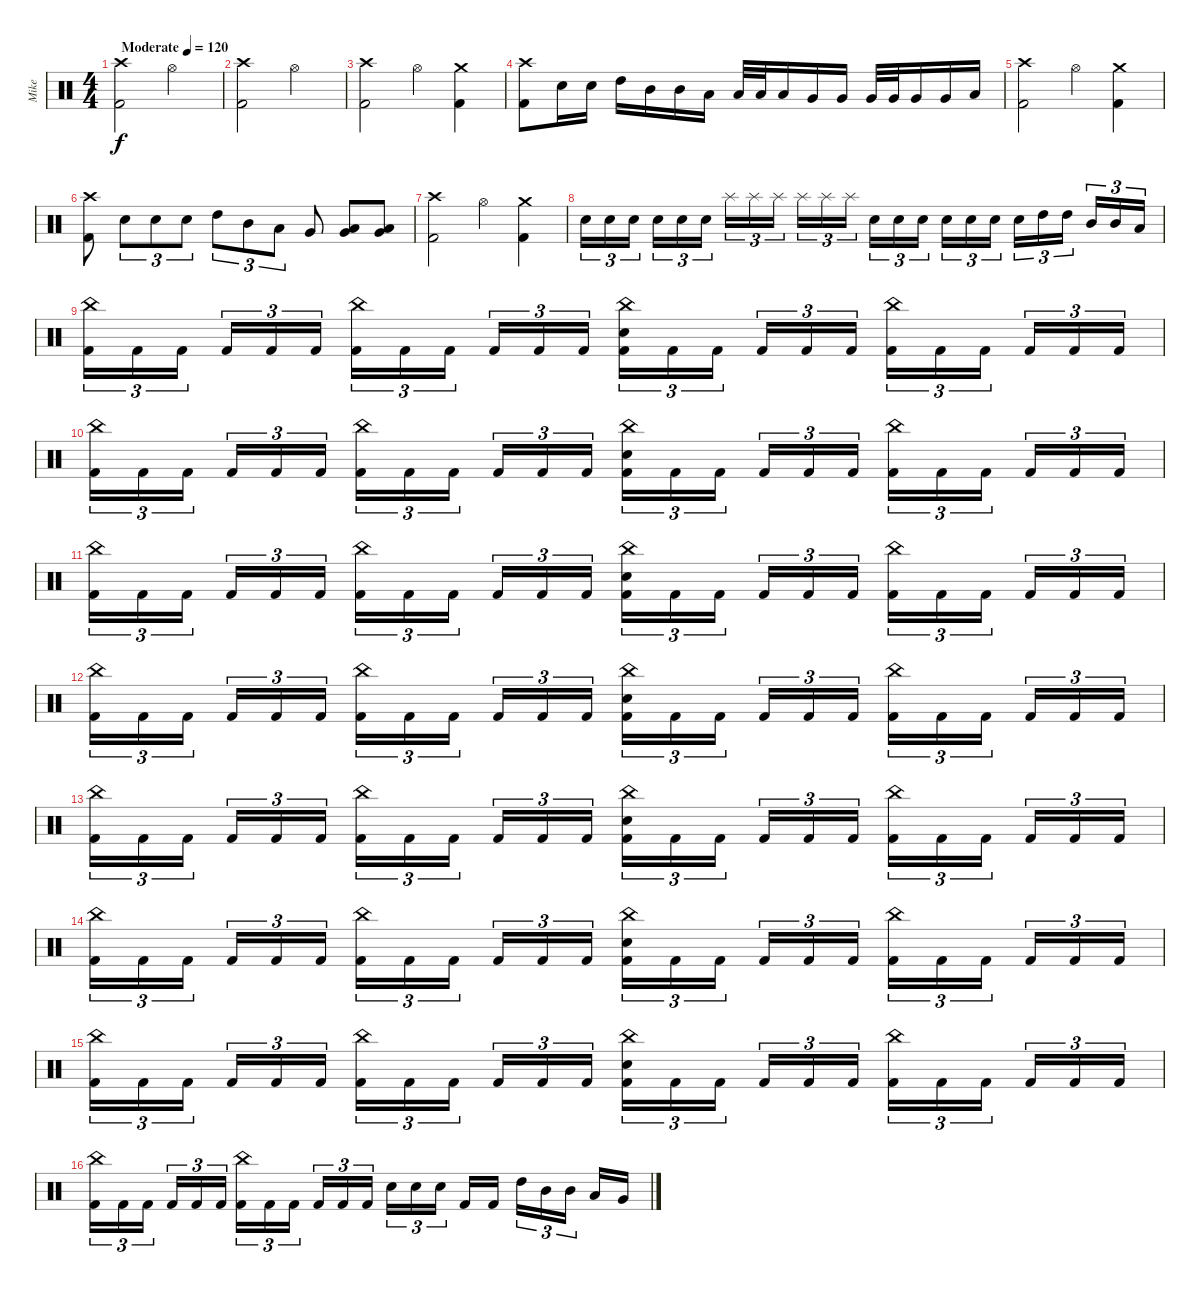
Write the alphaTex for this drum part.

\track ("Mike" "Mike") {instrument percussion}
\staff {score}
\articulation defaults
\ts (4 4)
\tempo (120 "Moderate")
\clef neutral
\ks c
("Kick (hit) 2" "Crash high (hit)").2{dy f} "Hi-Hat (open)".2 |
("Kick (hit) 2" "Crash high (hit)").2 "Hi-Hat (open)".2 |
("Kick (hit) 2" "Crash high (hit)").2 "Hi-Hat (open)".4 ("Kick (hit) 2" "Crash medium (hit)").4 |
("Kick (hit) 2" "Crash high (hit)").8 "Electric Snare (hit)".16 "Electric Snare (hit)".16 "High Tom (hit)".16 "Mid Tom (hit)".16 "Mid Tom (hit)".16 "Low Tom (hit)".16 "Low Tom (hit)".32 "Low Tom (hit)".32 "Low Tom (hit)".16 "Very Low Tom (hit)".16 "Very Low Tom (hit)".16 "Very Low Tom (hit)".32 "Very Low Tom (hit)".32 "Very Low Tom (hit)".16 "Very Low Tom (hit)".16 "Low Floor Tom (hit)".16 |
("Kick (hit) 2" "Crash high (hit)").2 "Hi-Hat (open)".4 ("Kick (hit) 2" "Crash medium (hit)").4 |
("Kick (hit) 2" "Crash high (hit)").8 "Electric Snare (hit)".8{tu (3 2)} "Electric Snare (hit)".8{tu (3 2)} "Electric Snare (hit)".8{tu (3 2)} "High Tom (hit)".8{tu (3 2)} "Mid Tom (hit)".8{tu (3 2)} "Low Tom (hit)".8{tu (3 2)} "Very Low Tom (hit)".8 ("Low Floor Tom (hit)" "Very Low Tom (hit)").8 ("Low Floor Tom (hit)" "Very Low Tom (hit)").8 |
("Kick (hit) 2" "Crash high (hit)").2 "Hi-Hat (open)".4 ("Kick (hit) 2" "Crash medium (hit)").4 |
"Electric Snare (hit)".16{tu (3 2)} "Electric Snare (hit)".16{tu (3 2)} "Electric Snare (hit)".16{tu (3 2) beam splitsecondary} "Electric Snare (hit)".16{tu (3 2)} "Electric Snare (hit)".16{tu (3 2)} "Electric Snare (hit)".16{tu (3 2)} "Splash (hit)".16{tu (3 2)} "Splash (hit)".16{tu (3 2)} "Splash (hit)".16{tu (3 2) beam splitsecondary} "Splash (hit)".16{tu (3 2)} "Splash (hit)".16{tu (3 2)} "Splash (hit)".16{tu (3 2)} "Electric Snare (hit)".16{tu (3 2)} "Electric Snare (hit)".16{tu (3 2)} "Electric Snare (hit)".16{tu (3 2) beam splitsecondary} "Electric Snare (hit)".16{tu (3 2)} "Electric Snare (hit)".16{tu (3 2)} "Electric Snare (hit)".16{tu (3 2)} "Electric Snare (hit)".16{tu (3 2)} "High Tom (hit)".16{tu (3 2)} "High Tom (hit)".16{tu (3 2) beam splitsecondary} "Mid Tom (hit)".16{tu (3 2)} "Mid Tom (hit)".16{tu (3 2)} "Low Tom (hit)".16{tu (3 2)} |
("Kick (hit) 2" "China (hit)").16{tu (3 2)} "Kick (hit) 2".16{tu (3 2)} "Kick (hit) 2".16{tu (3 2) beam splitsecondary} "Kick (hit) 2".16{tu (3 2)} "Kick (hit) 2".16{tu (3 2)} "Kick (hit) 2".16{tu (3 2)} ("Kick (hit) 2" "China (hit)").16{tu (3 2)} "Kick (hit) 2".16{tu (3 2)} "Kick (hit) 2".16{tu (3 2) beam splitsecondary} "Kick (hit) 2".16{tu (3 2)} "Kick (hit) 2".16{tu (3 2)} "Kick (hit) 2".16{tu (3 2)} ("Kick (hit) 2" "Electric Snare (hit)" "China (hit)").16{tu (3 2)} "Kick (hit) 2".16{tu (3 2)} "Kick (hit) 2".16{tu (3 2) beam splitsecondary} "Kick (hit) 2".16{tu (3 2)} "Kick (hit) 2".16{tu (3 2)} "Kick (hit) 2".16{tu (3 2)} ("Kick (hit) 2" "China (hit)").16{tu (3 2)} "Kick (hit) 2".16{tu (3 2)} "Kick (hit) 2".16{tu (3 2) beam splitsecondary} "Kick (hit) 2".16{tu (3 2)} "Kick (hit) 2".16{tu (3 2)} "Kick (hit) 2".16{tu (3 2)} |
("Kick (hit) 2" "China (hit)").16{tu (3 2)} "Kick (hit) 2".16{tu (3 2)} "Kick (hit) 2".16{tu (3 2) beam splitsecondary} "Kick (hit) 2".16{tu (3 2)} "Kick (hit) 2".16{tu (3 2)} "Kick (hit) 2".16{tu (3 2)} ("Kick (hit) 2" "China (hit)").16{tu (3 2)} "Kick (hit) 2".16{tu (3 2)} "Kick (hit) 2".16{tu (3 2) beam splitsecondary} "Kick (hit) 2".16{tu (3 2)} "Kick (hit) 2".16{tu (3 2)} "Kick (hit) 2".16{tu (3 2)} ("Kick (hit) 2" "Electric Snare (hit)" "China (hit)").16{tu (3 2)} "Kick (hit) 2".16{tu (3 2)} "Kick (hit) 2".16{tu (3 2) beam splitsecondary} "Kick (hit) 2".16{tu (3 2)} "Kick (hit) 2".16{tu (3 2)} "Kick (hit) 2".16{tu (3 2)} ("Kick (hit) 2" "China (hit)").16{tu (3 2)} "Kick (hit) 2".16{tu (3 2)} "Kick (hit) 2".16{tu (3 2) beam splitsecondary} "Kick (hit) 2".16{tu (3 2)} "Kick (hit) 2".16{tu (3 2)} "Kick (hit) 2".16{tu (3 2)} |
("Kick (hit) 2" "China (hit)").16{tu (3 2)} "Kick (hit) 2".16{tu (3 2)} "Kick (hit) 2".16{tu (3 2) beam splitsecondary} "Kick (hit) 2".16{tu (3 2)} "Kick (hit) 2".16{tu (3 2)} "Kick (hit) 2".16{tu (3 2)} ("Kick (hit) 2" "China (hit)").16{tu (3 2)} "Kick (hit) 2".16{tu (3 2)} "Kick (hit) 2".16{tu (3 2) beam splitsecondary} "Kick (hit) 2".16{tu (3 2)} "Kick (hit) 2".16{tu (3 2)} "Kick (hit) 2".16{tu (3 2)} ("Kick (hit) 2" "Electric Snare (hit)" "China (hit)").16{tu (3 2)} "Kick (hit) 2".16{tu (3 2)} "Kick (hit) 2".16{tu (3 2) beam splitsecondary} "Kick (hit) 2".16{tu (3 2)} "Kick (hit) 2".16{tu (3 2)} "Kick (hit) 2".16{tu (3 2)} ("Kick (hit) 2" "China (hit)").16{tu (3 2)} "Kick (hit) 2".16{tu (3 2)} "Kick (hit) 2".16{tu (3 2) beam splitsecondary} "Kick (hit) 2".16{tu (3 2)} "Kick (hit) 2".16{tu (3 2)} "Kick (hit) 2".16{tu (3 2)} |
("Kick (hit) 2" "China (hit)").16{tu (3 2)} "Kick (hit) 2".16{tu (3 2)} "Kick (hit) 2".16{tu (3 2) beam splitsecondary} "Kick (hit) 2".16{tu (3 2)} "Kick (hit) 2".16{tu (3 2)} "Kick (hit) 2".16{tu (3 2)} ("Kick (hit) 2" "China (hit)").16{tu (3 2)} "Kick (hit) 2".16{tu (3 2)} "Kick (hit) 2".16{tu (3 2) beam splitsecondary} "Kick (hit) 2".16{tu (3 2)} "Kick (hit) 2".16{tu (3 2)} "Kick (hit) 2".16{tu (3 2)} ("Kick (hit) 2" "Electric Snare (hit)" "China (hit)").16{tu (3 2)} "Kick (hit) 2".16{tu (3 2)} "Kick (hit) 2".16{tu (3 2) beam splitsecondary} "Kick (hit) 2".16{tu (3 2)} "Kick (hit) 2".16{tu (3 2)} "Kick (hit) 2".16{tu (3 2)} ("Kick (hit) 2" "China (hit)").16{tu (3 2)} "Kick (hit) 2".16{tu (3 2)} "Kick (hit) 2".16{tu (3 2) beam splitsecondary} "Kick (hit) 2".16{tu (3 2)} "Kick (hit) 2".16{tu (3 2)} "Kick (hit) 2".16{tu (3 2)} |
("Kick (hit) 2" "China (hit)").16{tu (3 2)} "Kick (hit) 2".16{tu (3 2)} "Kick (hit) 2".16{tu (3 2) beam splitsecondary} "Kick (hit) 2".16{tu (3 2)} "Kick (hit) 2".16{tu (3 2)} "Kick (hit) 2".16{tu (3 2)} ("Kick (hit) 2" "China (hit)").16{tu (3 2)} "Kick (hit) 2".16{tu (3 2)} "Kick (hit) 2".16{tu (3 2) beam splitsecondary} "Kick (hit) 2".16{tu (3 2)} "Kick (hit) 2".16{tu (3 2)} "Kick (hit) 2".16{tu (3 2)} ("Kick (hit) 2" "Electric Snare (hit)" "China (hit)").16{tu (3 2)} "Kick (hit) 2".16{tu (3 2)} "Kick (hit) 2".16{tu (3 2) beam splitsecondary} "Kick (hit) 2".16{tu (3 2)} "Kick (hit) 2".16{tu (3 2)} "Kick (hit) 2".16{tu (3 2)} ("Kick (hit) 2" "China (hit)").16{tu (3 2)} "Kick (hit) 2".16{tu (3 2)} "Kick (hit) 2".16{tu (3 2) beam splitsecondary} "Kick (hit) 2".16{tu (3 2)} "Kick (hit) 2".16{tu (3 2)} "Kick (hit) 2".16{tu (3 2)} |
("Kick (hit) 2" "China (hit)").16{tu (3 2)} "Kick (hit) 2".16{tu (3 2)} "Kick (hit) 2".16{tu (3 2) beam splitsecondary} "Kick (hit) 2".16{tu (3 2)} "Kick (hit) 2".16{tu (3 2)} "Kick (hit) 2".16{tu (3 2)} ("Kick (hit) 2" "China (hit)").16{tu (3 2)} "Kick (hit) 2".16{tu (3 2)} "Kick (hit) 2".16{tu (3 2) beam splitsecondary} "Kick (hit) 2".16{tu (3 2)} "Kick (hit) 2".16{tu (3 2)} "Kick (hit) 2".16{tu (3 2)} ("Kick (hit) 2" "Electric Snare (hit)" "China (hit)").16{tu (3 2)} "Kick (hit) 2".16{tu (3 2)} "Kick (hit) 2".16{tu (3 2) beam splitsecondary} "Kick (hit) 2".16{tu (3 2)} "Kick (hit) 2".16{tu (3 2)} "Kick (hit) 2".16{tu (3 2)} ("Kick (hit) 2" "China (hit)").16{tu (3 2)} "Kick (hit) 2".16{tu (3 2)} "Kick (hit) 2".16{tu (3 2) beam splitsecondary} "Kick (hit) 2".16{tu (3 2)} "Kick (hit) 2".16{tu (3 2)} "Kick (hit) 2".16{tu (3 2)} |
("Kick (hit) 2" "China (hit)").16{tu (3 2)} "Kick (hit) 2".16{tu (3 2)} "Kick (hit) 2".16{tu (3 2) beam splitsecondary} "Kick (hit) 2".16{tu (3 2)} "Kick (hit) 2".16{tu (3 2)} "Kick (hit) 2".16{tu (3 2)} ("Kick (hit) 2" "China (hit)").16{tu (3 2)} "Kick (hit) 2".16{tu (3 2)} "Kick (hit) 2".16{tu (3 2) beam splitsecondary} "Kick (hit) 2".16{tu (3 2)} "Kick (hit) 2".16{tu (3 2)} "Kick (hit) 2".16{tu (3 2)} ("Kick (hit) 2" "Electric Snare (hit)" "China (hit)").16{tu (3 2)} "Kick (hit) 2".16{tu (3 2)} "Kick (hit) 2".16{tu (3 2) beam splitsecondary} "Kick (hit) 2".16{tu (3 2)} "Kick (hit) 2".16{tu (3 2)} "Kick (hit) 2".16{tu (3 2)} ("Kick (hit) 2" "China (hit)").16{tu (3 2)} "Kick (hit) 2".16{tu (3 2)} "Kick (hit) 2".16{tu (3 2) beam splitsecondary} "Kick (hit) 2".16{tu (3 2)} "Kick (hit) 2".16{tu (3 2)} "Kick (hit) 2".16{tu (3 2)} |
("Kick (hit) 2" "China (hit)").16{tu (3 2)} "Kick (hit) 2".16{tu (3 2)} "Kick (hit) 2".16{tu (3 2) beam splitsecondary} "Kick (hit) 2".16{tu (3 2)} "Kick (hit) 2".16{tu (3 2)} "Kick (hit) 2".16{tu (3 2)} ("Kick (hit) 2" "China (hit)").16{tu (3 2)} "Kick (hit) 2".16{tu (3 2)} "Kick (hit) 2".16{tu (3 2) beam splitsecondary} "Kick (hit) 2".16{tu (3 2)} "Kick (hit) 2".16{tu (3 2)} "Kick (hit) 2".16{tu (3 2)} "Electric Snare (hit)".16{tu (3 2)} "Electric Snare (hit)".16{tu (3 2)} "Electric Snare (hit)".16{tu (3 2) beam splitsecondary} "Kick (hit) 2".16 "Kick (hit) 2".16 "High Tom (hit)".16{tu (3 2)} "Mid Tom (hit)".16{tu (3 2)} "Mid Tom (hit)".16{tu (3 2) beam splitsecondary} "Low Tom (hit)".16 "Very Low Tom (hit)".16
